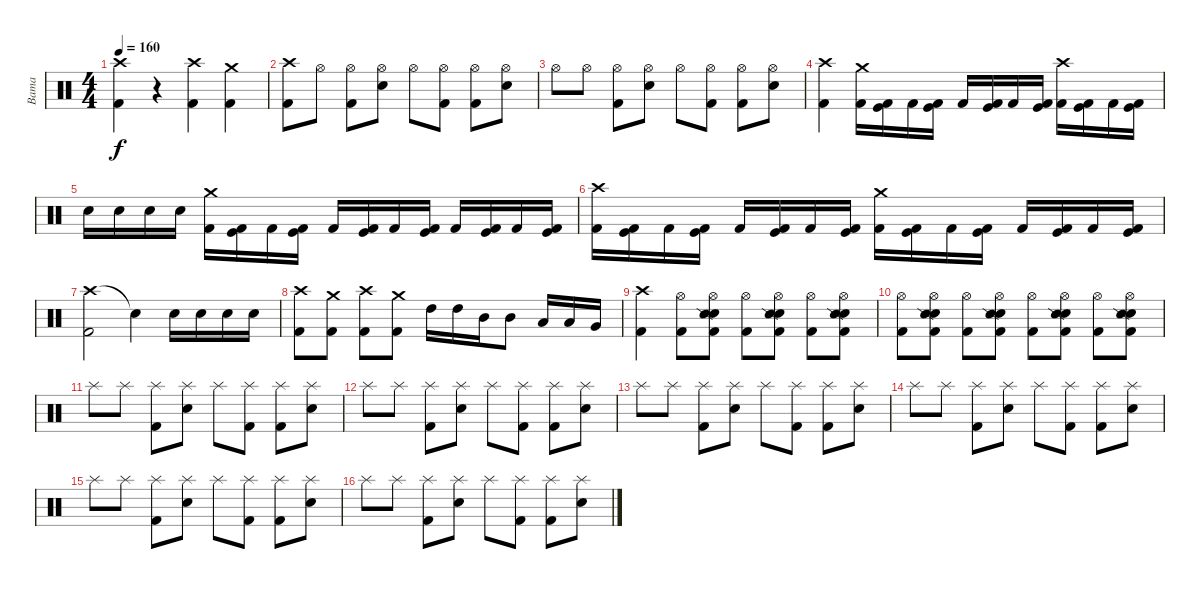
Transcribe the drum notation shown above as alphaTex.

\track ("Bama" "Bama") {instrument percussion}
\staff {score}
\articulation defaults
\ts (4 4)
\tempo 160
\clef neutral
\ks c
("Crash high (hit)" "Kick (hit) 2").4{dy f} r.4 ("Crash high (hit)" "Kick (hit) 2").4 ("Crash medium (hit)" "Kick (hit) 2").4 |
("Crash high (hit)" "Kick (hit) 2").8 "Hi-Hat (open)".8 ("Hi-Hat (open)" "Kick (hit) 2").8 ("Hi-Hat (open)" "Electric Snare (hit)").8 "Hi-Hat (open)".8 ("Hi-Hat (open)" "Kick (hit) 2").8 ("Hi-Hat (open)" "Kick (hit) 2").8 ("Hi-Hat (open)" "Electric Snare (hit)").8 |
"Hi-Hat (open)".8 "Hi-Hat (open)".8 ("Hi-Hat (open)" "Kick (hit) 2").8 ("Hi-Hat (open)" "Electric Snare (hit)").8 "Hi-Hat (open)".8 ("Hi-Hat (open)" "Kick (hit) 2").8 ("Hi-Hat (open)" "Kick (hit) 2").8 ("Hi-Hat (open)" "Electric Snare (hit)").8 |
("Crash high (hit)" "Kick (hit) 2").4 ("Crash medium (hit)" "Kick (hit) 2").16 ("Kick (hit)" "Kick (hit) 2").16 "Kick (hit) 2".16 ("Kick (hit)" "Kick (hit) 2").16 "Kick (hit) 2".16 ("Kick (hit)" "Kick (hit) 2").16 "Kick (hit) 2".16 ("Kick (hit)" "Kick (hit) 2").16 ("Crash high (hit)" "Kick (hit) 2").16 ("Kick (hit)" "Kick (hit) 2").16 "Kick (hit) 2".16 ("Kick (hit)" "Kick (hit) 2").16 |
"Electric Snare (hit)".16 "Electric Snare (hit)".16 "Electric Snare (hit)".16 "Electric Snare (hit)".16 ("Crash medium (hit)" "Kick (hit) 2").16 ("Kick (hit)" "Kick (hit) 2").16 "Kick (hit) 2".16 ("Kick (hit)" "Kick (hit) 2").16 "Kick (hit) 2".16 ("Kick (hit)" "Kick (hit) 2").16 "Kick (hit) 2".16 ("Kick (hit)" "Kick (hit) 2").16 "Kick (hit) 2".16 ("Kick (hit)" "Kick (hit) 2").16 "Kick (hit) 2".16 ("Kick (hit)" "Kick (hit) 2").16 |
("Crash high (hit)" "Kick (hit) 2").16 ("Kick (hit)" "Kick (hit) 2").16 "Kick (hit) 2".16 ("Kick (hit)" "Kick (hit) 2").16 "Kick (hit) 2".16 ("Kick (hit)" "Kick (hit) 2").16 "Kick (hit) 2".16 ("Kick (hit)" "Kick (hit) 2").16 ("Crash medium (hit)" "Kick (hit) 2").16 ("Kick (hit)" "Kick (hit) 2").16 "Kick (hit) 2".16 ("Kick (hit)" "Kick (hit) 2").16 "Kick (hit) 2".16 ("Kick (hit)" "Kick (hit) 2").16 "Kick (hit) 2".16 ("Kick (hit)" "Kick (hit) 2").16 |
("Crash high (hit)" "Kick (hit) 2").2 "Snare (hit)"{t}.4 "Electric Snare (hit)".16 "Electric Snare (hit)".16 "Electric Snare (hit)".16 "Electric Snare (hit)".16 |
("Crash high (hit)" "Kick (hit) 2").8 ("Crash medium (hit)" "Kick (hit) 2").8 ("Crash high (hit)" "Kick (hit) 2").8 ("Crash medium (hit)" "Kick (hit) 2").8 "High Tom (hit)".16 "High Tom (hit)".16 "Mid Tom (hit)".16 "Mid Tom (hit)".8 "Low Tom (hit)".16 "Low Tom (hit)".16 "Very Low Tom (hit)".16 |
("Crash high (hit)" "Kick (hit) 2").4 ("Hi-Hat (open)" "Kick (hit) 2").8 ("Hi-Hat (open)" "Electric Snare (hit)" "Snare (side stick) 2" "Kick (hit) 2").8 ("Hi-Hat (open)" "Kick (hit) 2").8 ("Hi-Hat (open)" "Electric Snare (hit)" "Snare (side stick) 2" "Kick (hit) 2").8 ("Hi-Hat (open)" "Kick (hit) 2").8 ("Hi-Hat (open)" "Electric Snare (hit)" "Snare (side stick) 2" "Kick (hit) 2").8 |
("Hi-Hat (open)" "Kick (hit) 2").8 ("Hi-Hat (open)" "Electric Snare (hit)" "Snare (side stick) 2" "Kick (hit) 2").8 ("Hi-Hat (open)" "Kick (hit) 2").8 ("Hi-Hat (open)" "Electric Snare (hit)" "Snare (side stick) 2" "Kick (hit) 2").8 ("Hi-Hat (open)" "Kick (hit) 2").8 ("Hi-Hat (open)" "Electric Snare (hit)" "Snare (side stick) 2" "Kick (hit) 2").8 ("Hi-Hat (open)" "Kick (hit) 2").8 ("Hi-Hat (open)" "Electric Snare (hit)" "Snare (side stick) 2" "Kick (hit) 2").8 |
"Splash (hit)".8 "Splash (hit)".8 ("Splash (hit)" "Kick (hit) 2").8 ("Splash (hit)" "Electric Snare (hit)").8 "Splash (hit)".8 ("Splash (hit)" "Kick (hit) 2").8 ("Splash (hit)" "Kick (hit) 2").8 ("Splash (hit)" "Electric Snare (hit)").8 |
"Splash (hit)".8 "Splash (hit)".8 ("Splash (hit)" "Kick (hit) 2").8 ("Splash (hit)" "Electric Snare (hit)").8 "Splash (hit)".8 ("Splash (hit)" "Kick (hit) 2").8 ("Splash (hit)" "Kick (hit) 2").8 ("Splash (hit)" "Electric Snare (hit)").8 |
"Splash (hit)".8 "Splash (hit)".8 ("Splash (hit)" "Kick (hit) 2").8 ("Splash (hit)" "Electric Snare (hit)").8 "Splash (hit)".8 ("Splash (hit)" "Kick (hit) 2").8 ("Splash (hit)" "Kick (hit) 2").8 ("Splash (hit)" "Electric Snare (hit)").8 |
"Splash (hit)".8 "Splash (hit)".8 ("Splash (hit)" "Kick (hit) 2").8 ("Splash (hit)" "Electric Snare (hit)").8 "Splash (hit)".8 ("Splash (hit)" "Kick (hit) 2").8 ("Splash (hit)" "Kick (hit) 2").8 ("Splash (hit)" "Electric Snare (hit)").8 |
"Splash (hit)".8 "Splash (hit)".8 ("Splash (hit)" "Kick (hit) 2").8 ("Splash (hit)" "Electric Snare (hit)").8 "Splash (hit)".8 ("Splash (hit)" "Kick (hit) 2").8 ("Splash (hit)" "Kick (hit) 2").8 ("Splash (hit)" "Electric Snare (hit)").8 |
"Splash (hit)".8 "Splash (hit)".8 ("Splash (hit)" "Kick (hit) 2").8 ("Splash (hit)" "Electric Snare (hit)").8 "Splash (hit)".8 ("Splash (hit)" "Kick (hit) 2").8 ("Splash (hit)" "Kick (hit) 2").8 ("Splash (hit)" "Electric Snare (hit)").8
